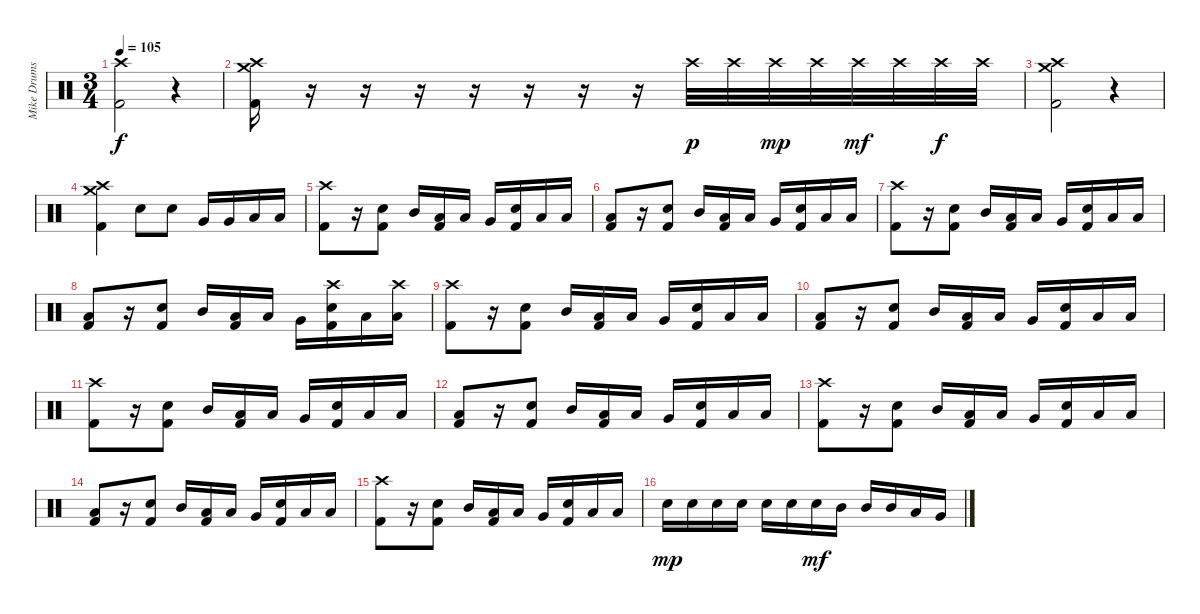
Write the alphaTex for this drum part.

\track ("Mike Drums" "Mike Drums") {instrument percussion}
\staff {score}
\articulation defaults
\ts (3 4)
\tempo 105
\clef neutral
\ks c
("Crash high (hit)" "Kick (hit) 2").2{dy f} r.4 |
("Crash high (hit)" "Kick (hit) 2" "Crash medium (hit)").16 r.16 r.16 r.16 r.16 r.16 r.16 r.16 "Crash high (hit)".32{dy p} "Crash high (hit)".32 "Crash high (hit)".32{dy mp} "Crash high (hit)".32 "Crash high (hit)".32{dy mf} "Crash high (hit)".32 "Crash high (hit)".32{dy f} "Crash high (hit)".32 |
("Crash high (hit)" "Kick (hit) 2" "Crash medium (hit)").2 r.4 |
("Crash high (hit)" "Kick (hit) 2" "Crash medium (hit)").4 "Electric Snare (hit)".8 "Electric Snare (hit)".8 "Very Low Tom (hit)".16 "Very Low Tom (hit)".16 "Low Floor Tom (hit)".16 "Low Floor Tom (hit)".16 |
("Crash high (hit)" "Kick (hit) 2").8 r.16 ("Electric Snare (hit)" "Kick (hit) 2").8 "Mid Tom (hit)".16 ("Low Tom (hit)" "Kick (hit) 2").16 "Low Tom (hit)".16 "Very Low Tom (hit)".16 ("Electric Snare (hit)" "Kick (hit) 2").16 "Low Floor Tom (hit)".16 "Low Floor Tom (hit)".16 |
("Low Floor Tom (hit)" "Kick (hit) 2").8 r.16 ("Electric Snare (hit)" "Kick (hit) 2").8 "Mid Tom (hit)".16 ("Low Tom (hit)" "Kick (hit) 2").16 "Low Tom (hit)".16 "Very Low Tom (hit)".16 ("Electric Snare (hit)" "Kick (hit) 2").16 "Low Floor Tom (hit)".16 "Low Floor Tom (hit)".16 |
("Crash high (hit)" "Kick (hit) 2").8 r.16 ("Electric Snare (hit)" "Kick (hit) 2").8 "Mid Tom (hit)".16 ("Low Tom (hit)" "Kick (hit) 2").16 "Low Tom (hit)".16 "Very Low Tom (hit)".16 ("Electric Snare (hit)" "Kick (hit) 2").16 "Low Floor Tom (hit)".16 "Low Floor Tom (hit)".16 |
("Low Floor Tom (hit)" "Kick (hit) 2").8 r.16 ("Electric Snare (hit)" "Kick (hit) 2").8 "Mid Tom (hit)".16 ("Low Tom (hit)" "Kick (hit) 2").16 "Low Tom (hit)".16 "Very Low Tom (hit)".16 ("Electric Snare (hit)" "Crash high (hit)" "Kick (hit) 2").16 "Low Floor Tom (hit)".16 ("Low Floor Tom (hit)" "Crash high (hit)").16 |
("Crash high (hit)" "Kick (hit) 2").8 r.16 ("Electric Snare (hit)" "Kick (hit) 2").8 "Mid Tom (hit)".16 ("Low Tom (hit)" "Kick (hit) 2").16 "Low Tom (hit)".16 "Very Low Tom (hit)".16 ("Electric Snare (hit)" "Kick (hit) 2").16 "Low Floor Tom (hit)".16 "Low Floor Tom (hit)".16 |
("Low Floor Tom (hit)" "Kick (hit) 2").8 r.16 ("Electric Snare (hit)" "Kick (hit) 2").8 "Mid Tom (hit)".16 ("Low Tom (hit)" "Kick (hit) 2").16 "Low Tom (hit)".16 "Very Low Tom (hit)".16 ("Electric Snare (hit)" "Kick (hit) 2").16 "Low Floor Tom (hit)".16 "Low Floor Tom (hit)".16 |
("Crash high (hit)" "Kick (hit) 2").8 r.16 ("Electric Snare (hit)" "Kick (hit) 2").8 "Mid Tom (hit)".16 ("Low Tom (hit)" "Kick (hit) 2").16 "Low Tom (hit)".16 "Very Low Tom (hit)".16 ("Electric Snare (hit)" "Kick (hit) 2").16 "Low Floor Tom (hit)".16 "Low Floor Tom (hit)".16 |
("Low Floor Tom (hit)" "Kick (hit) 2").8 r.16 ("Electric Snare (hit)" "Kick (hit) 2").8 "Mid Tom (hit)".16 ("Low Tom (hit)" "Kick (hit) 2").16 "Low Tom (hit)".16 "Very Low Tom (hit)".16 ("Electric Snare (hit)" "Kick (hit) 2").16 "Low Floor Tom (hit)".16 "Low Floor Tom (hit)".16 |
("Crash high (hit)" "Kick (hit) 2").8 r.16 ("Electric Snare (hit)" "Kick (hit) 2").8 "Mid Tom (hit)".16 ("Low Tom (hit)" "Kick (hit) 2").16 "Low Tom (hit)".16 "Very Low Tom (hit)".16 ("Electric Snare (hit)" "Kick (hit) 2").16 "Low Floor Tom (hit)".16 "Low Floor Tom (hit)".16 |
("Low Floor Tom (hit)" "Kick (hit) 2").8 r.16 ("Electric Snare (hit)" "Kick (hit) 2").8 "Mid Tom (hit)".16 ("Low Tom (hit)" "Kick (hit) 2").16 "Low Tom (hit)".16 "Very Low Tom (hit)".16 ("Electric Snare (hit)" "Kick (hit) 2").16 "Low Floor Tom (hit)".16 "Low Floor Tom (hit)".16 |
("Crash high (hit)" "Kick (hit) 2").8 r.16 ("Electric Snare (hit)" "Kick (hit) 2").8 "Mid Tom (hit)".16 ("Low Tom (hit)" "Kick (hit) 2").16 "Low Tom (hit)".16 "Very Low Tom (hit)".16 ("Electric Snare (hit)" "Kick (hit) 2").16 "Low Floor Tom (hit)".16 "Low Floor Tom (hit)".16 |
"Electric Snare (hit)".16{dy mp} "Electric Snare (hit)".16 "Electric Snare (hit)".16 "Electric Snare (hit)".16 "Electric Snare (hit)".16 "Electric Snare (hit)".16 "Electric Snare (hit)".16{dy mf} "Mid Tom (hit)".16 "Mid Tom (hit)".16 "Mid Tom (hit)".16 "Low Tom (hit)".16 "Very Low Tom (hit)".16
